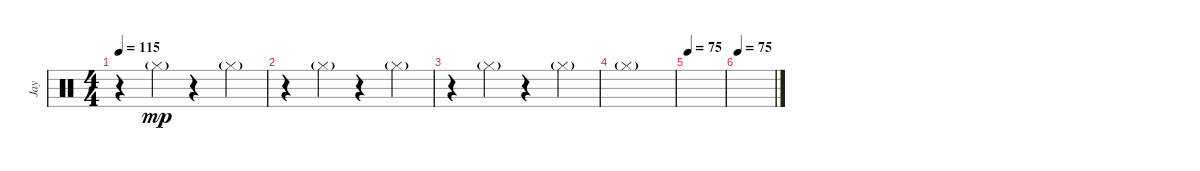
\track ("Jay" "Jay") {instrument percussion}
\staff {score}
\articulation defaults
\ts (4 4)
\tempo 115
\clef neutral
\ks c
r.4{dy mp} "Hi-Hat (closed)"{g}.4 r.4 "Hi-Hat (closed)"{g}.4 |
r.4 "Hi-Hat (closed)"{g}.4 r.4 "Hi-Hat (closed)"{g}.4 |
r.4 "Hi-Hat (closed)"{g}.4 r.4 "Hi-Hat (closed)"{g}.4 |
"Hi-Hat (closed)"{g}.1 |
\tempo 75
|
\tempo 75
